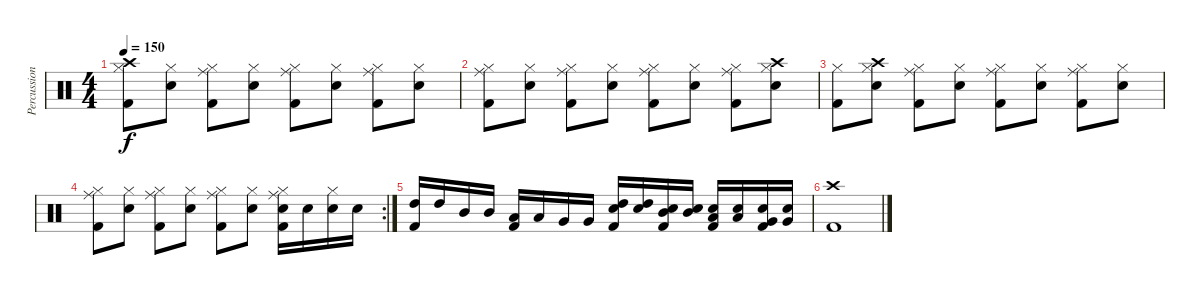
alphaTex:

\track ("Percussion" "Percussion") {instrument percussion}
\staff {score}
\articulation defaults
\ts (4 4)
\tempo 150
\clef neutral
\ks c
("Hi-Hat (closed)" "Kick (hit) 2" "Crash high (hit)").8{dy f} ("Hi-Hat (closed)" "Electric Snare (hit)").8 ("Hi-Hat (closed)" "Kick (hit) 2" "Ride (middle)").8 ("Hi-Hat (closed)" "Electric Snare (hit)").8 ("Hi-Hat (closed)" "Kick (hit) 2" "Ride (middle)").8 ("Hi-Hat (closed)" "Electric Snare (hit)").8 ("Hi-Hat (closed)" "Kick (hit) 2" "Ride (middle)").8 ("Hi-Hat (closed)" "Electric Snare (hit)").8 |
("Hi-Hat (closed)" "Kick (hit) 2" "Ride (middle)").8 ("Hi-Hat (closed)" "Electric Snare (hit)").8 ("Hi-Hat (closed)" "Kick (hit) 2" "Ride (middle)").8 ("Hi-Hat (closed)" "Electric Snare (hit)").8 ("Hi-Hat (closed)" "Kick (hit) 2" "Ride (middle)").8 ("Hi-Hat (closed)" "Electric Snare (hit)").8 ("Hi-Hat (closed)" "Kick (hit) 2" "Ride (middle)").8 ("Hi-Hat (closed)" "Electric Snare (hit)" "Crash high (hit)").8 |
("Hi-Hat (closed)" "Kick (hit) 2").8 ("Hi-Hat (closed)" "Electric Snare (hit)" "Crash high (hit)").8 ("Hi-Hat (closed)" "Kick (hit) 2" "Ride (middle)").8 ("Hi-Hat (closed)" "Electric Snare (hit)").8 ("Hi-Hat (closed)" "Kick (hit) 2" "Ride (middle)").8 ("Hi-Hat (closed)" "Electric Snare (hit)").8 ("Hi-Hat (closed)" "Kick (hit) 2" "Ride (middle)").8 ("Hi-Hat (closed)" "Electric Snare (hit)").8 |
\rc 2
("Hi-Hat (closed)" "Kick (hit) 2" "Ride (middle)").8 ("Hi-Hat (closed)" "Electric Snare (hit)").8 ("Hi-Hat (closed)" "Kick (hit) 2" "Ride (middle)").8 ("Hi-Hat (closed)" "Electric Snare (hit)").8 ("Hi-Hat (closed)" "Kick (hit) 2" "Ride (middle)").8 ("Hi-Hat (closed)" "Electric Snare (hit)").8 ("Hi-Hat (closed)" "Electric Snare (hit)" "Kick (hit) 2" "Ride (middle)").16 "Electric Snare (hit)".16 ("Hi-Hat (closed)" "Electric Snare (hit)").16 "Electric Snare (hit)".16 |
("High Tom (hit)" "Kick (hit) 2").16 "High Tom (hit)".16 "Mid Tom (hit)".16 "Mid Tom (hit)".16 ("Low Tom (hit)" "Kick (hit) 2").16 "Low Tom (hit)".16 "Very Low Tom (hit)".16 "Very Low Tom (hit)".16 ("Electric Snare (hit)" "High Tom (hit)" "Kick (hit) 2").16 ("Electric Snare (hit)" "High Tom (hit)").16 ("Electric Snare (hit)" "Mid Tom (hit)" "Kick (hit) 2").16 ("Electric Snare (hit)" "Mid Tom (hit)").16 ("Electric Snare (hit)" "Low Tom (hit)" "Kick (hit) 2").16 ("Electric Snare (hit)" "Low Tom (hit)").16 ("Electric Snare (hit)" "Very Low Tom (hit)" "Kick (hit) 2").16 ("Electric Snare (hit)" "Very Low Tom (hit)").16 |
("Kick (hit) 2" "Crash high (hit)").1
